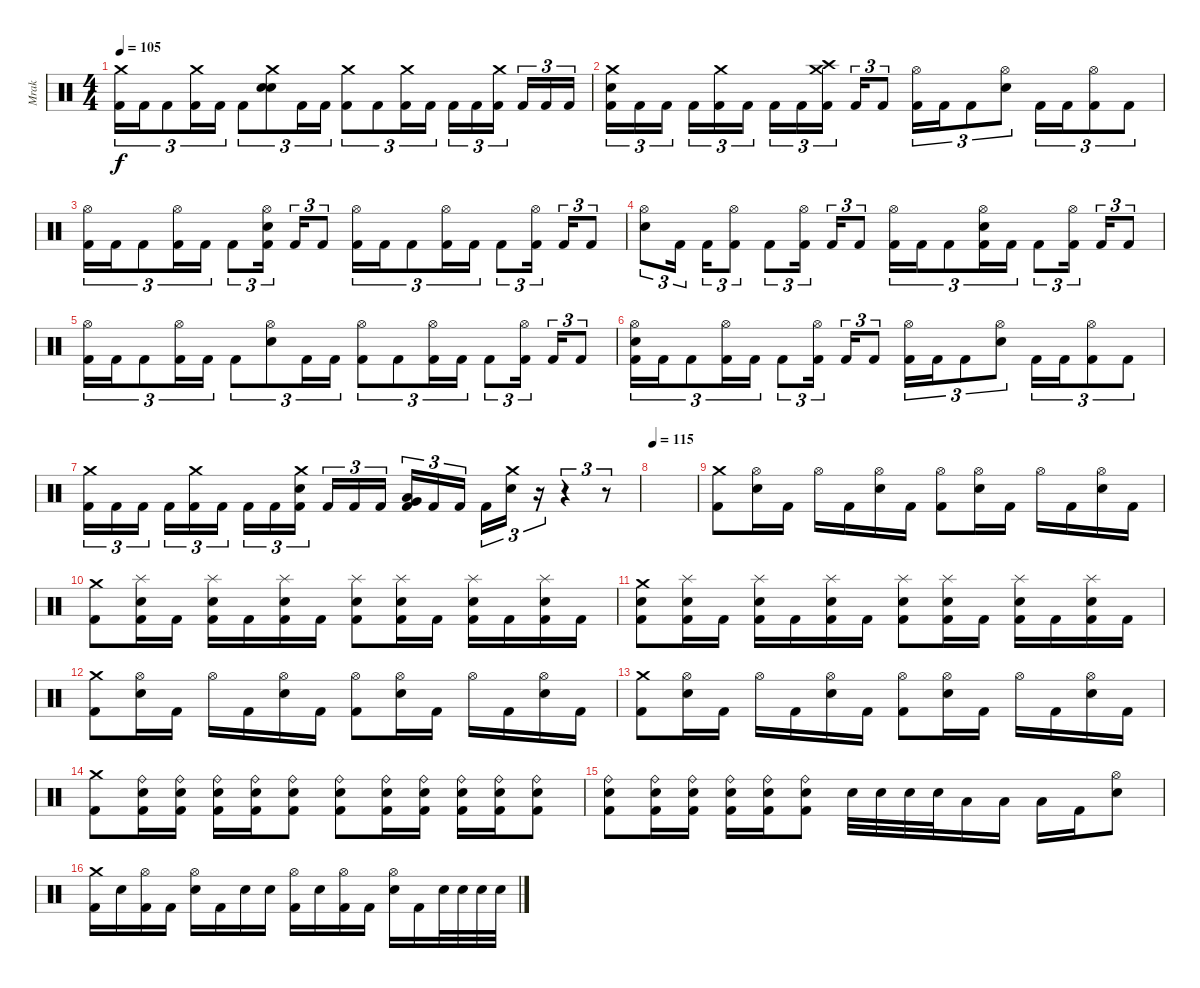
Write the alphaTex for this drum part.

\track ("Mrak" "Mrak") {instrument percussion}
\staff {score}
\articulation defaults
\ts (4 4)
\tempo 105
\clef neutral
\ks c
("Crash medium (hit)" "Kick (hit) 2").16{tu (3 2) dy f} "Kick (hit) 2".16{tu (3 2)} "Kick (hit) 2".8{tu (3 2)} ("Crash medium (hit)" "Kick (hit) 2").16{tu (3 2)} "Kick (hit) 2".16{tu (3 2)} "Kick (hit) 2".8{tu (3 2)} ("Electric Snare (hit)" "Crash medium (hit)" "Electric Snare (hit)").8{tu (3 2)} "Kick (hit) 2".16{tu (3 2)} "Kick (hit) 2".16{tu (3 2)} ("Crash medium (hit)" "Kick (hit) 2").8{tu (3 2)} "Kick (hit) 2".8{tu (3 2)} ("Crash medium (hit)" "Kick (hit) 2").16{tu (3 2)} "Kick (hit) 2".16{tu (3 2)} "Kick (hit) 2".16{tu (3 2)} "Kick (hit) 2".16{tu (3 2)} ("Crash medium (hit)" "Kick (hit) 2").16{tu (3 2) beam splitsecondary} "Kick (hit) 2".16{tu (3 2)} "Kick (hit) 2".16{tu (3 2)} "Kick (hit) 2".16{tu (3 2)} |
("Crash medium (hit)" "Electric Snare (hit)" "Kick (hit) 2").16{tu (3 2)} "Kick (hit) 2".16{tu (3 2)} "Kick (hit) 2".16{tu (3 2) beam splitsecondary} "Kick (hit) 2".16{tu (3 2)} ("Crash medium (hit)" "Kick (hit) 2").16{tu (3 2)} "Kick (hit) 2".16{tu (3 2)} "Kick (hit) 2".16{tu (3 2)} "Kick (hit) 2".16{tu (3 2)} ("Crash medium (hit)" "Crash high (hit)" "Kick (hit) 2").16{tu (3 2) beam splitsecondary} "Kick (hit) 2".16{tu (3 2)} "Kick (hit) 2".8{tu (3 2)} ("Hi-Hat (open)" "Kick (hit) 2").16{tu (3 2)} "Kick (hit) 2".16{tu (3 2)} "Kick (hit) 2".8{tu (3 2)} ("Hi-Hat (open)" "Electric Snare (hit)").8{tu (3 2)} "Kick (hit) 2".16{tu (3 2)} "Kick (hit) 2".16{tu (3 2)} ("Hi-Hat (open)" "Kick (hit) 2").8{tu (3 2)} "Kick (hit) 2".8{tu (3 2)} |
("Hi-Hat (open)" "Kick (hit) 2").16{tu (3 2)} "Kick (hit) 2".16{tu (3 2)} "Kick (hit) 2".8{tu (3 2)} ("Hi-Hat (open)" "Kick (hit) 2").16{tu (3 2)} "Kick (hit) 2".16{tu (3 2)} "Kick (hit) 2".8{tu (3 2)} ("Hi-Hat (open)" "Electric Snare (hit)" "Kick (hit) 2").16{tu (3 2) beam splitsecondary} "Kick (hit) 2".16{tu (3 2)} "Kick (hit) 2".8{tu (3 2)} ("Hi-Hat (open)" "Kick (hit) 2").16{tu (3 2)} "Kick (hit) 2".16{tu (3 2)} "Kick (hit) 2".8{tu (3 2)} ("Hi-Hat (open)" "Kick (hit) 2").16{tu (3 2)} "Kick (hit) 2".16{tu (3 2)} "Kick (hit) 2".8{tu (3 2)} ("Hi-Hat (open)" "Kick (hit) 2").16{tu (3 2) beam splitsecondary} "Kick (hit) 2".16{tu (3 2)} "Kick (hit) 2".8{tu (3 2)} |
("Hi-Hat (open)" "Electric Snare (hit)").8{tu (3 2)} "Kick (hit) 2".16{tu (3 2) beam splitsecondary} "Kick (hit) 2".16{tu (3 2)} ("Hi-Hat (open)" "Kick (hit) 2").8{tu (3 2)} "Kick (hit) 2".8{tu (3 2)} ("Hi-Hat (open)" "Kick (hit) 2").16{tu (3 2) beam splitsecondary} "Kick (hit) 2".16{tu (3 2)} "Kick (hit) 2".8{tu (3 2)} ("Hi-Hat (open)" "Kick (hit) 2").16{tu (3 2)} "Kick (hit) 2".16{tu (3 2)} "Kick (hit) 2".8{tu (3 2)} ("Hi-Hat (open)" "Electric Snare (hit)" "Kick (hit) 2").16{tu (3 2)} "Kick (hit) 2".16{tu (3 2)} "Kick (hit) 2".8{tu (3 2)} ("Hi-Hat (open)" "Kick (hit) 2").16{tu (3 2) beam splitsecondary} "Kick (hit) 2".16{tu (3 2)} "Kick (hit) 2".8{tu (3 2)} |
("Hi-Hat (open)" "Kick (hit) 2").16{tu (3 2)} "Kick (hit) 2".16{tu (3 2)} "Kick (hit) 2".8{tu (3 2)} ("Hi-Hat (open)" "Kick (hit) 2").16{tu (3 2)} "Kick (hit) 2".16{tu (3 2)} "Kick (hit) 2".8{tu (3 2)} ("Hi-Hat (open)" "Electric Snare (hit)").8{tu (3 2)} "Kick (hit) 2".16{tu (3 2)} "Kick (hit) 2".16{tu (3 2)} ("Hi-Hat (open)" "Kick (hit) 2").8{tu (3 2)} "Kick (hit) 2".8{tu (3 2)} ("Hi-Hat (open)" "Kick (hit) 2").16{tu (3 2)} "Kick (hit) 2".16{tu (3 2)} "Kick (hit) 2".8{tu (3 2)} ("Hi-Hat (open)" "Kick (hit) 2").16{tu (3 2) beam splitsecondary} "Kick (hit) 2".16{tu (3 2)} "Kick (hit) 2".8{tu (3 2)} |
("Hi-Hat (open)" "Electric Snare (hit)" "Kick (hit) 2").16{tu (3 2)} "Kick (hit) 2".16{tu (3 2)} "Kick (hit) 2".8{tu (3 2)} ("Hi-Hat (open)" "Kick (hit) 2").16{tu (3 2)} "Kick (hit) 2".16{tu (3 2)} "Kick (hit) 2".8{tu (3 2)} ("Hi-Hat (open)" "Kick (hit) 2").16{tu (3 2) beam splitsecondary} "Kick (hit) 2".16{tu (3 2)} "Kick (hit) 2".8{tu (3 2)} ("Hi-Hat (open)" "Kick (hit) 2").16{tu (3 2)} "Kick (hit) 2".16{tu (3 2)} "Kick (hit) 2".8{tu (3 2)} ("Hi-Hat (open)" "Electric Snare (hit)").8{tu (3 2)} "Kick (hit) 2".16{tu (3 2)} "Kick (hit) 2".16{tu (3 2)} ("Hi-Hat (open)" "Kick (hit) 2").8{tu (3 2)} "Kick (hit) 2".8{tu (3 2)} |
("Crash medium (hit)" "Kick (hit) 2").16{tu (3 2)} "Kick (hit) 2".16{tu (3 2)} "Kick (hit) 2".16{tu (3 2) beam splitsecondary} "Kick (hit) 2".16{tu (3 2)} ("Crash medium (hit)" "Kick (hit) 2").16{tu (3 2)} "Kick (hit) 2".16{tu (3 2)} "Kick (hit) 2".16{tu (3 2)} "Kick (hit) 2".16{tu (3 2)} ("Crash medium (hit)" "Electric Snare (hit)" "Kick (hit) 2").16{tu (3 2) beam splitsecondary} "Kick (hit) 2".16{tu (3 2)} "Kick (hit) 2".16{tu (3 2)} "Kick (hit) 2".16{tu (3 2)} ("Very Low Tom (hit)" "Low Floor Tom (hit)" "Kick (hit) 2").16{tu (3 2)} "Kick (hit) 2".16{tu (3 2)} "Kick (hit) 2".16{tu (3 2) beam splitsecondary} "Kick (hit) 2".16{tu (3 2)} ("Crash medium (hit)" "Electric Snare (hit)").16{tu (3 2)} r.16{tu (3 2)} r.4{tu (3 2)} r.8{tu (3 2)} |
\tempo 115
|
("Crash medium (hit)" "Kick (hit) 2").8 ("Hi-Hat (open)" "Electric Snare (hit)").16 "Kick (hit) 2".16 "Hi-Hat (open)".16 "Kick (hit) 2".16 ("Hi-Hat (open)" "Electric Snare (hit)").16 "Kick (hit) 2".16 ("Hi-Hat (open)" "Kick (hit) 2").8 ("Hi-Hat (open)" "Electric Snare (hit)").16 "Kick (hit) 2".16 "Hi-Hat (open)".16 "Kick (hit) 2".16 ("Hi-Hat (open)" "Electric Snare (hit)").16 "Kick (hit) 2".16 |
("Crash medium (hit)" "Kick (hit) 2").8 ("Kick (hit) 2" "Electric Snare (hit)" "Splash (hit)").16 "Kick (hit) 2".16 ("Kick (hit) 2" "Electric Snare (hit)" "Splash (hit)").16 "Kick (hit) 2".16 ("Kick (hit) 2" "Electric Snare (hit)" "Splash (hit)").16 "Kick (hit) 2".16 ("Kick (hit) 2" "Electric Snare (hit)" "Splash (hit)").8 ("Kick (hit) 2" "Electric Snare (hit)" "Splash (hit)").16 "Kick (hit) 2".16 ("Kick (hit) 2" "Electric Snare (hit)" "Splash (hit)").16 "Kick (hit) 2".16 ("Kick (hit) 2" "Electric Snare (hit)" "Splash (hit)").16 "Kick (hit) 2".16 |
("Crash medium (hit)" "Electric Snare (hit)" "Kick (hit) 2").8 ("Kick (hit) 2" "Electric Snare (hit)" "Splash (hit)").16 "Kick (hit) 2".16 ("Kick (hit) 2" "Electric Snare (hit)" "Splash (hit)").16 "Kick (hit) 2".16 ("Kick (hit) 2" "Electric Snare (hit)" "Splash (hit)").16 "Kick (hit) 2".16 ("Kick (hit) 2" "Electric Snare (hit)" "Splash (hit)").8 ("Kick (hit) 2" "Electric Snare (hit)" "Splash (hit)").16 "Kick (hit) 2".16 ("Kick (hit) 2" "Electric Snare (hit)" "Splash (hit)").16 "Kick (hit) 2".16 ("Kick (hit) 2" "Electric Snare (hit)" "Splash (hit)").16 "Kick (hit) 2".16 |
("Crash medium (hit)" "Kick (hit) 2").8 ("Hi-Hat (open)" "Electric Snare (hit)").16 "Kick (hit) 2".16 "Hi-Hat (open)".16 "Kick (hit) 2".16 ("Hi-Hat (open)" "Electric Snare (hit)").16 "Kick (hit) 2".16 ("Hi-Hat (open)" "Kick (hit) 2").8 ("Hi-Hat (open)" "Electric Snare (hit)").16 "Kick (hit) 2".16 "Hi-Hat (open)".16 "Kick (hit) 2".16 ("Hi-Hat (open)" "Electric Snare (hit)").16 "Kick (hit) 2".16 |
("Crash medium (hit)" "Kick (hit) 2").8 ("Hi-Hat (open)" "Electric Snare (hit)").16 "Kick (hit) 2".16 "Hi-Hat (open)".16 "Kick (hit) 2".16 ("Hi-Hat (open)" "Electric Snare (hit)").16 "Kick (hit) 2".16 ("Hi-Hat (open)" "Kick (hit) 2").8 ("Hi-Hat (open)" "Electric Snare (hit)").16 "Kick (hit) 2".16 "Hi-Hat (open)".16 "Kick (hit) 2".16 ("Hi-Hat (open)" "Electric Snare (hit)").16 "Kick (hit) 2".16 |
("Crash medium (hit)" "Kick (hit) 2").8 ("Kick (hit) 2" "Electric Snare (hit)" "Ride (bell)").16 ("Kick (hit) 2" "Electric Snare (hit)" "Ride (bell)").16 ("Kick (hit) 2" "Electric Snare (hit)" "Ride (bell)").16 ("Kick (hit) 2" "Electric Snare (hit)" "Ride (bell)").16 ("Kick (hit) 2" "Electric Snare (hit)" "Ride (bell)").8 ("Kick (hit) 2" "Electric Snare (hit)" "Ride (bell)").8 ("Kick (hit) 2" "Electric Snare (hit)" "Ride (bell)").16 ("Kick (hit) 2" "Electric Snare (hit)" "Ride (bell)").16 ("Kick (hit) 2" "Electric Snare (hit)" "Ride (bell)").16 ("Kick (hit) 2" "Electric Snare (hit)" "Ride (bell)").16 ("Kick (hit) 2" "Electric Snare (hit)" "Ride (bell)").8 |
("Ride (bell)" "Electric Snare (hit)" "Kick (hit) 2").8 ("Kick (hit) 2" "Electric Snare (hit)" "Ride (bell)").16 ("Kick (hit) 2" "Electric Snare (hit)" "Ride (bell)").16 ("Kick (hit) 2" "Electric Snare (hit)" "Ride (bell)").16 ("Kick (hit) 2" "Electric Snare (hit)" "Ride (bell)").16 ("Kick (hit) 2" "Electric Snare (hit)" "Ride (bell)").8 "Electric Snare (hit)".32 "Electric Snare (hit)".32 "Electric Snare (hit)".32 "Electric Snare (hit)".32 "Low Tom (hit)".16 "Low Tom (hit)".16 "Low Floor Tom (hit)".16 "Kick (hit) 2".16 ("Electric Snare (hit)" "Hi-Hat (open)").8 |
("Crash medium (hit)" "Kick (hit) 2").16 "Electric Snare (hit)".16 ("Hi-Hat (open)" "Kick (hit) 2").16 "Kick (hit) 2".16 ("Hi-Hat (open)" "Electric Snare (hit)").16 "Kick (hit) 2".16 "Electric Snare (hit)".16 "Electric Snare (hit)".16 ("Hi-Hat (open)" "Kick (hit) 2").16 "Electric Snare (hit)".16 ("Hi-Hat (open)" "Kick (hit) 2").16 "Kick (hit) 2".16 ("Hi-Hat (open)" "Electric Snare (hit)").16 "Kick (hit) 2".16 "Electric Snare (hit)".32 "Electric Snare (hit)".32 "Electric Snare (hit)".32 "Electric Snare (hit)".32
